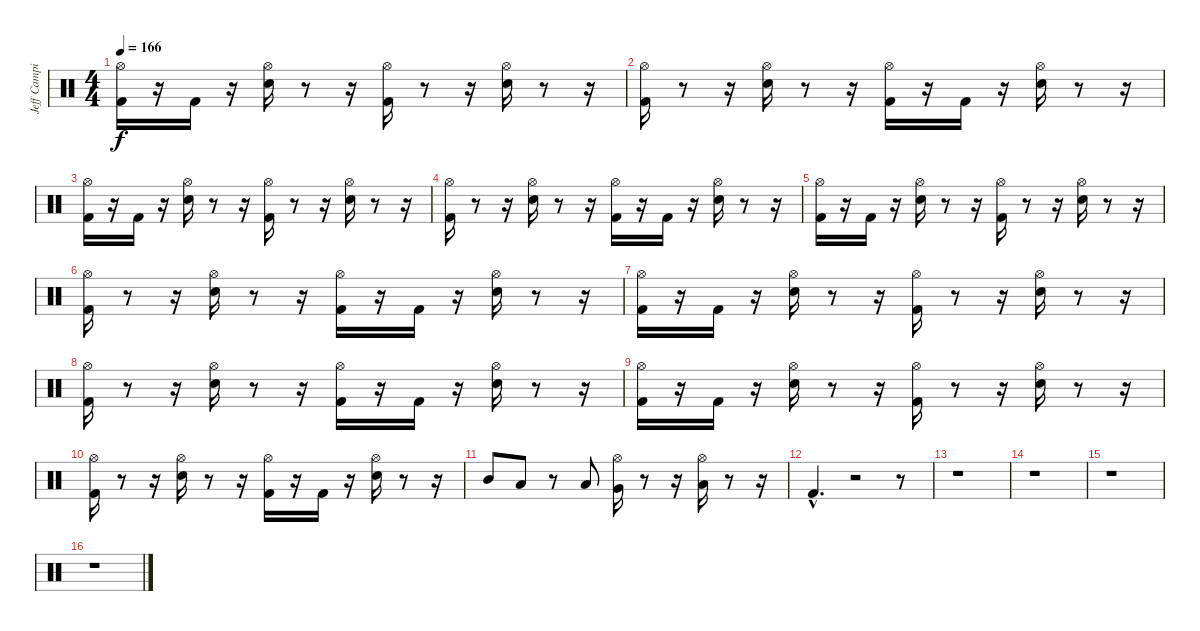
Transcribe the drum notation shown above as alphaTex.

\track ("Jeff Campitelli" "Jeff Campi") {instrument percussion}
\staff {score}
\articulation defaults
\ts (4 4)
\tempo 166
\clef neutral
\ks c
("Hi-Hat (open)" "Kick (hit) 2").16{dy f} r.16 "Kick (hit) 2".16 r.16 ("Snare (hit) 2" "Hi-Hat (open)").16 r.8 r.16 ("Hi-Hat (open)" "Kick (hit) 2").16 r.8 r.16 ("Hi-Hat (open)" "Snare (hit) 2").16 r.8 r.16 |
("Hi-Hat (open)" "Kick (hit) 2").16 r.8 r.16 ("Snare (hit) 2" "Hi-Hat (open)").16 r.8 r.16 ("Kick (hit) 2" "Hi-Hat (open)").16 r.16 "Kick (hit) 2".16 r.16 ("Hi-Hat (open)" "Snare (hit) 2").16 r.8 r.16 |
("Hi-Hat (open)" "Kick (hit) 2").16 r.16 "Kick (hit) 2".16 r.16 ("Snare (hit) 2" "Hi-Hat (open)").16 r.8 r.16 ("Hi-Hat (open)" "Kick (hit) 2").16 r.8 r.16 ("Hi-Hat (open)" "Snare (hit) 2").16 r.8 r.16 |
("Hi-Hat (open)" "Kick (hit) 2").16 r.8 r.16 ("Snare (hit) 2" "Hi-Hat (open)").16 r.8 r.16 ("Kick (hit) 2" "Hi-Hat (open)").16 r.16 "Kick (hit) 2".16 r.16 ("Hi-Hat (open)" "Snare (hit) 2").16 r.8 r.16 |
("Hi-Hat (open)" "Kick (hit) 2").16 r.16 "Kick (hit) 2".16 r.16 ("Snare (hit) 2" "Hi-Hat (open)").16 r.8 r.16 ("Hi-Hat (open)" "Kick (hit) 2").16 r.8 r.16 ("Hi-Hat (open)" "Snare (hit) 2").16 r.8 r.16 |
("Hi-Hat (open)" "Kick (hit) 2").16 r.8 r.16 ("Snare (hit) 2" "Hi-Hat (open)").16 r.8 r.16 ("Kick (hit) 2" "Hi-Hat (open)").16 r.16 "Kick (hit) 2".16 r.16 ("Hi-Hat (open)" "Snare (hit) 2").16 r.8 r.16 |
("Hi-Hat (open)" "Kick (hit) 2").16 r.16 "Kick (hit) 2".16 r.16 ("Snare (hit) 2" "Hi-Hat (open)").16 r.8 r.16 ("Hi-Hat (open)" "Kick (hit) 2").16 r.8 r.16 ("Hi-Hat (open)" "Snare (hit) 2").16 r.8 r.16 |
("Hi-Hat (open)" "Kick (hit) 2").16 r.8 r.16 ("Snare (hit) 2" "Hi-Hat (open)").16 r.8 r.16 ("Kick (hit) 2" "Hi-Hat (open)").16 r.16 "Kick (hit) 2".16 r.16 ("Hi-Hat (open)" "Snare (hit) 2").16 r.8 r.16 |
("Hi-Hat (open)" "Kick (hit) 2").16 r.16 "Kick (hit) 2".16 r.16 ("Snare (hit) 2" "Hi-Hat (open)").16 r.8 r.16 ("Hi-Hat (open)" "Kick (hit) 2").16 r.8 r.16 ("Hi-Hat (open)" "Snare (hit) 2").16 r.8 r.16 |
("Hi-Hat (open)" "Kick (hit) 2").16 r.8 r.16 ("Snare (hit) 2" "Hi-Hat (open)").16 r.8 r.16 ("Kick (hit) 2" "Hi-Hat (open)").16 r.16 "Kick (hit) 2".16 r.16 ("Hi-Hat (open)" "Snare (hit) 2").16 r.8 r.16 |
"Mid Tom (hit)".8 "Low Tom (hit)".8 r.8 "Low Tom (hit)".8 ("Very Low Tom (hit)" "Hi-Hat (open)").16 r.8 r.16 ("Low Floor Tom (hit)" "Hi-Hat (open)").16 r.8 r.16 |
"Kick (hit) 2"{hac}.4{d} r.2 r.8 |
r.1 |
r.1 |
r.1 |
r.1
